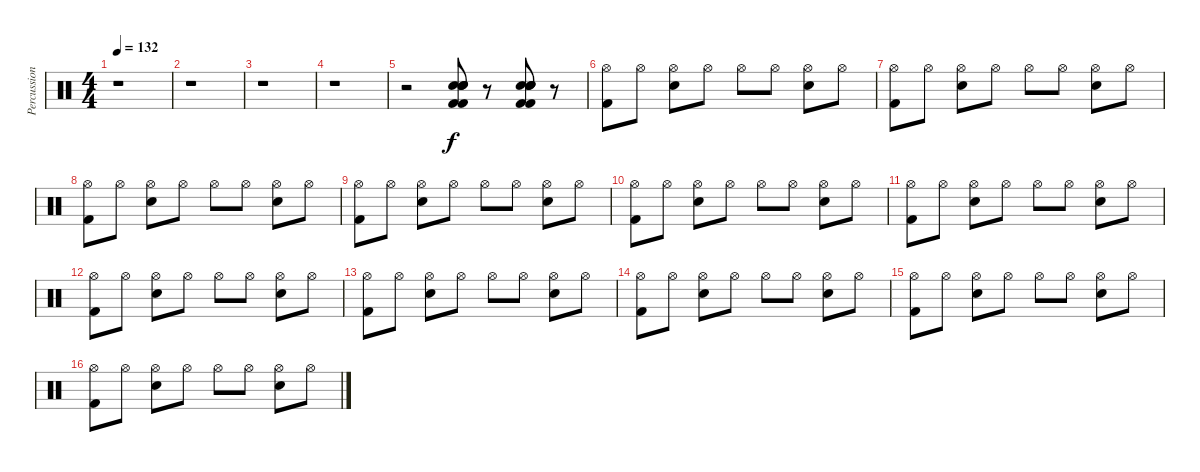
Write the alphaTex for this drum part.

\track ("Percussion" "Percussion") {instrument percussion}
\staff {score}
\articulation defaults
\ts (4 4)
\tempo 132
\clef neutral
\ks c
r.1{dy f} |
r.1 |
r.1 |
r.1 |
r.2 ("Electric Snare (hit)" "Electric Snare (hit)" "Electric Snare (hit)" "Electric Snare (hit)" "Kick (hit) 2" "Kick (hit) 2").8 r.8 ("Electric Snare (hit)" "Electric Snare (hit)" "Electric Snare (hit)" "Electric Snare (hit)" "Kick (hit) 2" "Kick (hit) 2").8 r.8 |
("Hi-Hat (open)" "Kick (hit) 2").8 "Hi-Hat (open)".8 ("Hi-Hat (open)" "Snare (hit) 2").8 "Hi-Hat (open)".8 "Hi-Hat (open)".8 "Hi-Hat (open)".8 ("Hi-Hat (open)" "Snare (hit) 2").8 "Hi-Hat (open)".8 |
("Hi-Hat (open)" "Kick (hit) 2").8 "Hi-Hat (open)".8 ("Hi-Hat (open)" "Snare (hit) 2").8 "Hi-Hat (open)".8 "Hi-Hat (open)".8 "Hi-Hat (open)".8 ("Hi-Hat (open)" "Snare (hit) 2").8 "Hi-Hat (open)".8 |
("Hi-Hat (open)" "Kick (hit) 2").8 "Hi-Hat (open)".8 ("Hi-Hat (open)" "Snare (hit) 2").8 "Hi-Hat (open)".8 "Hi-Hat (open)".8 "Hi-Hat (open)".8 ("Hi-Hat (open)" "Snare (hit) 2").8 "Hi-Hat (open)".8 |
("Hi-Hat (open)" "Kick (hit) 2").8 "Hi-Hat (open)".8 ("Hi-Hat (open)" "Snare (hit) 2").8 "Hi-Hat (open)".8 "Hi-Hat (open)".8 "Hi-Hat (open)".8 ("Hi-Hat (open)" "Snare (hit) 2").8 "Hi-Hat (open)".8 |
("Hi-Hat (open)" "Kick (hit) 2").8 "Hi-Hat (open)".8 ("Hi-Hat (open)" "Snare (hit) 2").8 "Hi-Hat (open)".8 "Hi-Hat (open)".8 "Hi-Hat (open)".8 ("Hi-Hat (open)" "Snare (hit) 2").8 "Hi-Hat (open)".8 |
("Hi-Hat (open)" "Kick (hit) 2").8 "Hi-Hat (open)".8 ("Hi-Hat (open)" "Snare (hit) 2").8 "Hi-Hat (open)".8 "Hi-Hat (open)".8 "Hi-Hat (open)".8 ("Hi-Hat (open)" "Snare (hit) 2").8 "Hi-Hat (open)".8 |
("Hi-Hat (open)" "Kick (hit) 2").8 "Hi-Hat (open)".8 ("Hi-Hat (open)" "Snare (hit) 2").8 "Hi-Hat (open)".8 "Hi-Hat (open)".8 "Hi-Hat (open)".8 ("Hi-Hat (open)" "Snare (hit) 2").8 "Hi-Hat (open)".8 |
("Hi-Hat (open)" "Kick (hit) 2").8 "Hi-Hat (open)".8 ("Hi-Hat (open)" "Snare (hit) 2").8 "Hi-Hat (open)".8 "Hi-Hat (open)".8 "Hi-Hat (open)".8 ("Hi-Hat (open)" "Snare (hit) 2").8 "Hi-Hat (open)".8 |
("Hi-Hat (open)" "Kick (hit) 2").8 "Hi-Hat (open)".8 ("Hi-Hat (open)" "Snare (hit) 2").8 "Hi-Hat (open)".8 "Hi-Hat (open)".8 "Hi-Hat (open)".8 ("Hi-Hat (open)" "Snare (hit) 2").8 "Hi-Hat (open)".8 |
("Hi-Hat (open)" "Kick (hit) 2").8 "Hi-Hat (open)".8 ("Hi-Hat (open)" "Snare (hit) 2").8 "Hi-Hat (open)".8 "Hi-Hat (open)".8 "Hi-Hat (open)".8 ("Hi-Hat (open)" "Snare (hit) 2").8 "Hi-Hat (open)".8 |
("Hi-Hat (open)" "Kick (hit) 2").8 "Hi-Hat (open)".8 ("Hi-Hat (open)" "Snare (hit) 2").8 "Hi-Hat (open)".8 "Hi-Hat (open)".8 "Hi-Hat (open)".8 ("Hi-Hat (open)" "Snare (hit) 2").8 "Hi-Hat (open)".8
